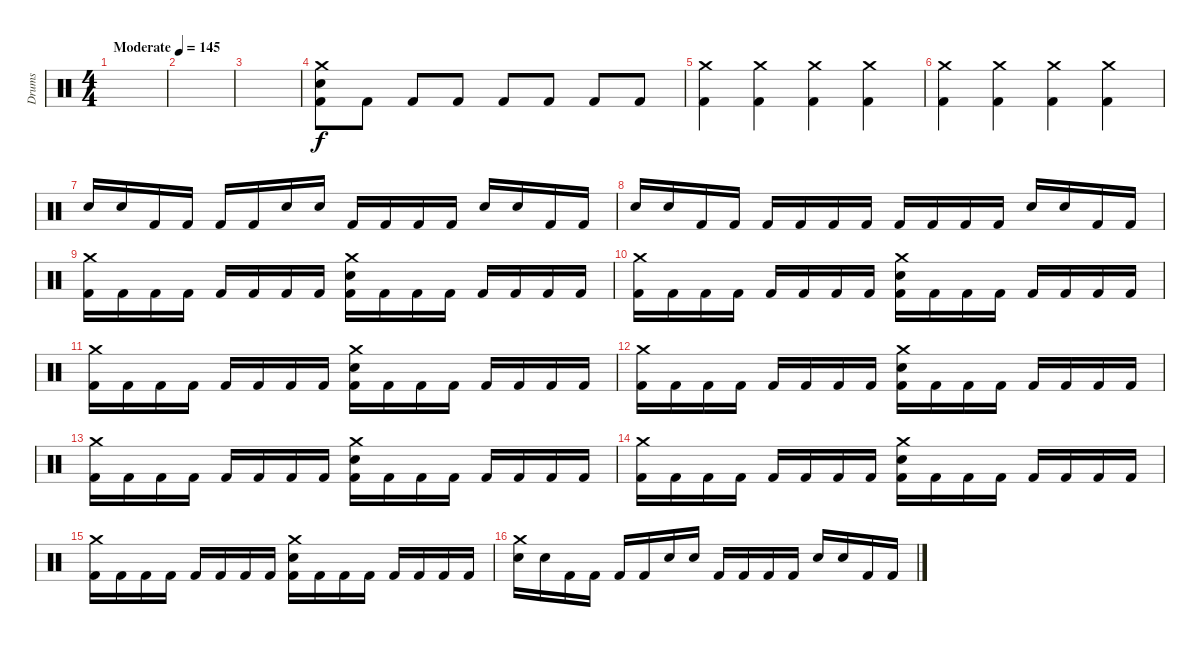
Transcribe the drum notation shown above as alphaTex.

\track ("Drums" "Drums") {instrument percussion}
\staff {score}
\articulation defaults
\ts (4 4)
\tempo (145 "Moderate")
\clef neutral
\ks c
|
|
|
("Crash medium (hit)" "Electric Snare (hit)" "Kick (hit) 2").8 "Kick (hit) 2".8 "Kick (hit) 2".8 "Kick (hit) 2".8 "Kick (hit) 2".8 "Kick (hit) 2".8 "Kick (hit) 2".8 "Kick (hit) 2".8 |
("Crash medium (hit)" "Kick (hit) 2").4 ("Crash medium (hit)" "Kick (hit) 2").4 ("Crash medium (hit)" "Kick (hit) 2").4 ("Crash medium (hit)" "Kick (hit) 2").4 |
("Crash medium (hit)" "Kick (hit) 2").4 ("Crash medium (hit)" "Kick (hit) 2").4 ("Crash medium (hit)" "Kick (hit) 2").4 ("Crash medium (hit)" "Kick (hit) 2").4 |
"Snare (hit) 2".16 "Snare (hit) 2".16 "Kick (hit) 2".16 "Kick (hit) 2".16 "Kick (hit) 2".16 "Kick (hit) 2".16 "Snare (hit) 2".16 "Snare (hit) 2".16 "Kick (hit) 2".16 "Kick (hit) 2".16 "Kick (hit) 2".16 "Kick (hit) 2".16 "Snare (hit) 2".16 "Snare (hit) 2".16 "Kick (hit) 2".16 "Kick (hit) 2".16 |
"Snare (hit) 2".16 "Snare (hit) 2".16 "Kick (hit) 2".16 "Kick (hit) 2".16 "Kick (hit) 2".16 "Kick (hit) 2".16 "Kick (hit) 2".16 "Kick (hit) 2".16 "Kick (hit) 2".16 "Kick (hit) 2".16 "Kick (hit) 2".16 "Kick (hit) 2".16 "Snare (hit) 2".16 "Snare (hit) 2".16 "Kick (hit) 2".16 "Kick (hit) 2".16 |
("Crash medium (hit)" "Kick (hit) 2").16 "Kick (hit) 2".16 "Kick (hit) 2".16 "Kick (hit) 2".16 "Kick (hit) 2".16 "Kick (hit) 2".16 "Kick (hit) 2".16 "Kick (hit) 2".16 ("Crash medium (hit)" "Snare (hit) 2" "Kick (hit) 2").16 "Kick (hit) 2".16 "Kick (hit) 2".16 "Kick (hit) 2".16 "Kick (hit) 2".16 "Kick (hit) 2".16 "Kick (hit) 2".16 "Kick (hit) 2".16 |
("Crash medium (hit)" "Kick (hit) 2").16 "Kick (hit) 2".16 "Kick (hit) 2".16 "Kick (hit) 2".16 "Kick (hit) 2".16 "Kick (hit) 2".16 "Kick (hit) 2".16 "Kick (hit) 2".16 ("Crash medium (hit)" "Snare (hit) 2" "Kick (hit) 2").16 "Kick (hit) 2".16 "Kick (hit) 2".16 "Kick (hit) 2".16 "Kick (hit) 2".16 "Kick (hit) 2".16 "Kick (hit) 2".16 "Kick (hit) 2".16 |
("Crash medium (hit)" "Kick (hit) 2").16 "Kick (hit) 2".16 "Kick (hit) 2".16 "Kick (hit) 2".16 "Kick (hit) 2".16 "Kick (hit) 2".16 "Kick (hit) 2".16 "Kick (hit) 2".16 ("Crash medium (hit)" "Snare (hit) 2" "Kick (hit) 2").16 "Kick (hit) 2".16 "Kick (hit) 2".16 "Kick (hit) 2".16 "Kick (hit) 2".16 "Kick (hit) 2".16 "Kick (hit) 2".16 "Kick (hit) 2".16 |
("Crash medium (hit)" "Kick (hit) 2").16 "Kick (hit) 2".16 "Kick (hit) 2".16 "Kick (hit) 2".16 "Kick (hit) 2".16 "Kick (hit) 2".16 "Kick (hit) 2".16 "Kick (hit) 2".16 ("Crash medium (hit)" "Snare (hit) 2" "Kick (hit) 2").16 "Kick (hit) 2".16 "Kick (hit) 2".16 "Kick (hit) 2".16 "Kick (hit) 2".16 "Kick (hit) 2".16 "Kick (hit) 2".16 "Kick (hit) 2".16 |
("Crash medium (hit)" "Kick (hit) 2").16 "Kick (hit) 2".16 "Kick (hit) 2".16 "Kick (hit) 2".16 "Kick (hit) 2".16 "Kick (hit) 2".16 "Kick (hit) 2".16 "Kick (hit) 2".16 ("Crash medium (hit)" "Snare (hit) 2" "Kick (hit) 2").16 "Kick (hit) 2".16 "Kick (hit) 2".16 "Kick (hit) 2".16 "Kick (hit) 2".16 "Kick (hit) 2".16 "Kick (hit) 2".16 "Kick (hit) 2".16 |
("Crash medium (hit)" "Kick (hit) 2").16 "Kick (hit) 2".16 "Kick (hit) 2".16 "Kick (hit) 2".16 "Kick (hit) 2".16 "Kick (hit) 2".16 "Kick (hit) 2".16 "Kick (hit) 2".16 ("Crash medium (hit)" "Snare (hit) 2" "Kick (hit) 2").16 "Kick (hit) 2".16 "Kick (hit) 2".16 "Kick (hit) 2".16 "Kick (hit) 2".16 "Kick (hit) 2".16 "Kick (hit) 2".16 "Kick (hit) 2".16 |
("Crash medium (hit)" "Kick (hit) 2").16 "Kick (hit) 2".16 "Kick (hit) 2".16 "Kick (hit) 2".16 "Kick (hit) 2".16 "Kick (hit) 2".16 "Kick (hit) 2".16 "Kick (hit) 2".16 ("Crash medium (hit)" "Snare (hit) 2" "Kick (hit) 2").16 "Kick (hit) 2".16 "Kick (hit) 2".16 "Kick (hit) 2".16 "Kick (hit) 2".16 "Kick (hit) 2".16 "Kick (hit) 2".16 "Kick (hit) 2".16 |
("Crash medium (hit)" "Snare (hit) 2").16 "Snare (hit) 2".16 "Kick (hit) 2".16 "Kick (hit) 2".16 "Kick (hit) 2".16 "Kick (hit) 2".16 "Snare (hit) 2".16 "Snare (hit) 2".16 "Kick (hit) 2".16 "Kick (hit) 2".16 "Kick (hit) 2".16 "Kick (hit) 2".16 "Snare (hit) 2".16 "Snare (hit) 2".16 "Kick (hit) 2".16 "Kick (hit) 2".16
